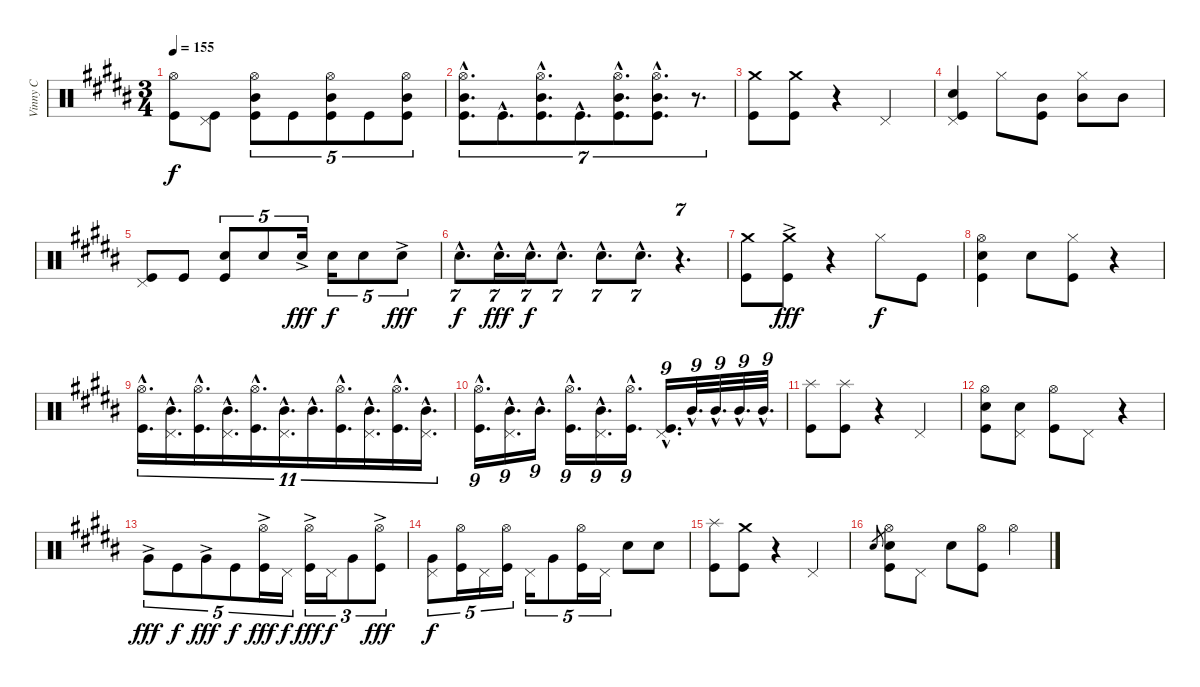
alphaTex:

\track ("Vinny C" "Vinny C") {instrument percussion}
\staff {score}
\articulation defaults
\ts (3 4)
\tempo 155
\clef neutral
\ks b
("Hi-Hat (open)" "Kick (hit)").8{dy f} ("Pedal Hi-Hat (hit)" "Kick (hit)").8 ("Hi-Hat (open)" "Mid Tom (hit)" "Kick (hit)").8{tu (5 4)} "Kick (hit)".8{tu (5 4)} ("Hi-Hat (open)" "Mid Tom (hit)" "Kick (hit)").8{tu (5 4)} "Kick (hit)".8{tu (5 4)} ("Hi-Hat (open)" "Mid Tom (hit)" "Kick (hit)").8{tu (5 4)} |
("Hi-Hat (open)"{hac} "Mid Tom (hit)"{hac} "Kick (hit)"{hac}).8{d tu (7 4)} "Kick (hit)"{hac}.8{d tu (7 4)} ("Hi-Hat (open)"{hac} "Mid Tom (hit)"{hac} "Kick (hit)"{hac}).8{d tu (7 4)} "Kick (hit)"{hac}.8{d tu (7 4)} ("Hi-Hat (open)"{hac} "Mid Tom (hit)"{hac} "Kick (hit)"{hac}).8{d tu (7 4)} ("Hi-Hat (open)"{hac} "Mid Tom (hit)"{hac} "Kick (hit)"{hac}).8{d tu (7 4)} r.8{d tu (7 4)} |
("Crash medium (hit)" "Kick (hit)").8 ("Crash medium (hit)" "Kick (hit)").8 r.4 "Pedal Hi-Hat (hit)".4 |
("Pedal Hi-Hat (hit)" "Electric Snare (hit)" "Kick (hit)").4 "Hi-Hat (closed)".8 ("Mid Tom (hit)" "Kick (hit)").8 ("Hi-Hat (closed)" "Mid Tom (hit)").8 "Mid Tom (hit)".8 |
("Pedal Hi-Hat (hit)" "Kick (hit)").8 "Kick (hit)".8 ("Electric Snare (hit)" "Kick (hit)").8{tu (5 4)} "Electric Snare (hit)".8{tu (5 4)} "Electric Snare (hit)"{ac}.16{tu (5 4) dy fff} "Electric Snare (hit)".16{tu (5 4) dy f} "Electric Snare (hit)".8{tu (5 4)} "Electric Snare (hit)"{ac}.8{tu (5 4) dy fff} |
"Electric Snare (hit)"{hac}.8{d tu (7 4) dy f} "Electric Snare (hit)"{hac}.16{d tu (7 4) dy fff} "Electric Snare (hit)"{hac}.16{d tu (7 4) dy f} "Electric Snare (hit)"{hac}.8{d tu (7 4)} "Electric Snare (hit)"{hac}.8{d tu (7 4)} "Electric Snare (hit)"{hac}.8{d tu (7 4)} r.4{d tu (7 4)} |
("Crash medium (hit)" "Kick (hit)").8 ("Crash medium (hit)"{ac} "Kick (hit)").8{dy fff} r.4 "Hi-Hat (closed)".8{dy f} "Kick (hit)".8 |
("Hi-Hat (open)" "Electric Snare (hit)" "Kick (hit)").4 "Electric Snare (hit)".8 ("Hi-Hat (closed)" "Kick (hit)").8 r.4 |
("Hi-Hat (open)"{hac} "Kick (hit)"{hac}).16{d tu (11 8)} ("Pedal Hi-Hat (hit)"{hac} "Mid Tom (hit)"{hac}).16{d tu (11 8)} ("Hi-Hat (open)"{hac} "Kick (hit)"{hac}).16{d tu (11 8)} ("Pedal Hi-Hat (hit)"{hac} "Mid Tom (hit)"{hac}).16{d tu (11 8)} ("Hi-Hat (open)"{hac} "Kick (hit)"{hac}).16{d tu (11 8)} ("Pedal Hi-Hat (hit)"{hac} "Mid Tom (hit)"{hac}).16{d tu (11 8)} "Mid Tom (hit)"{hac}.16{d tu (11 8)} ("Hi-Hat (open)"{hac} "Kick (hit)"{hac}).16{d tu (11 8)} ("Pedal Hi-Hat (hit)"{hac} "Mid Tom (hit)"{hac}).16{d tu (11 8)} ("Hi-Hat (open)"{hac} "Kick (hit)"{hac}).16{d tu (11 8)} ("Pedal Hi-Hat (hit)"{hac} "Mid Tom (hit)"{hac}).16{d tu (11 8)} |
("Hi-Hat (open)"{hac} "Kick (hit)"{hac}).16{d tu (9 8)} ("Pedal Hi-Hat (hit)"{hac} "Mid Tom (hit)"{hac}).16{d tu (9 8)} "Mid Tom (hit)"{hac}.16{d tu (9 8)} ("Hi-Hat (open)"{hac} "Kick (hit)"{hac}).16{d tu (9 8)} ("Pedal Hi-Hat (hit)"{hac} "Mid Tom (hit)"{hac}).16{d tu (9 8)} ("Hi-Hat (open)"{hac} "Kick (hit)"{hac}).16{d tu (9 8)} ("Pedal Hi-Hat (hit)"{hac} "Kick (hit)"{hac}).16{d tu (9 8)} "Mid Tom (hit)"{hac}.32{d tu (9 8)} "Mid Tom (hit)"{hac}.32{d tu (9 8)} "Mid Tom (hit)"{hac}.32{d tu (9 8)} "Mid Tom (hit)"{hac}.32{d tu (9 8)} |
("Splash (hit)" "Kick (hit)").8 ("Splash (hit)" "Kick (hit)").8 r.4 "Pedal Hi-Hat (hit)".4 |
("Hi-Hat (open)" "Electric Snare (hit)" "Kick (hit)").8 ("Pedal Hi-Hat (hit)" "Electric Snare (hit)").8 ("Hi-Hat (open)" "Kick (hit)").8 "Pedal Hi-Hat (hit)".8 r.4 |
"Very Low Tom (hit)"{ac}.8{tu (5 4) dy fff} "Kick (hit)".8{tu (5 4) dy f} "Very Low Tom (hit)"{ac}.8{tu (5 4) dy fff} "Kick (hit)".8{tu (5 4) dy f} ("Hi-Hat (open)"{ac} "Kick (hit)").16{tu (5 4) dy fff} "Pedal Hi-Hat (hit)".16{tu (5 4) dy f} ("Hi-Hat (open)"{ac} "Kick (hit)").16{tu (3 2) dy fff} "Pedal Hi-Hat (hit)".16{tu (3 2) dy f} "Very Low Tom (hit)".8{tu (3 2)} ("Hi-Hat (open)"{ac} "Kick (hit)").8{tu (3 2) dy fff} |
("Pedal Hi-Hat (hit)" "Very Low Tom (hit)").8{tu (5 4) dy f} ("Hi-Hat (open)" "Kick (hit)").16{tu (5 4)} "Pedal Hi-Hat (hit)".16{tu (5 4)} ("Hi-Hat (open)" "Kick (hit)").16{tu (5 4)} "Pedal Hi-Hat (hit)".16{tu (5 4)} "Very Low Tom (hit)".8{tu (5 4)} ("Hi-Hat (open)" "Kick (hit)").16{tu (5 4)} "Pedal Hi-Hat (hit)".16{tu (5 4)} "Electric Snare (hit)".8 "Electric Snare (hit)".8 |
("Splash (hit)" "Kick (hit)").8 ("Crash medium (hit)" "Kick (hit)").8 r.4 "Pedal Hi-Hat (hit)".4 |
"Electric Snare (hit)".8{gr} ("Hi-Hat (open)" "Electric Snare (hit)" "Kick (hit)").8 "Pedal Hi-Hat (hit)".8 "Electric Snare (hit)".8 ("Hi-Hat (open)" "Kick (hit)").8 "Hi-Hat (open)".4
